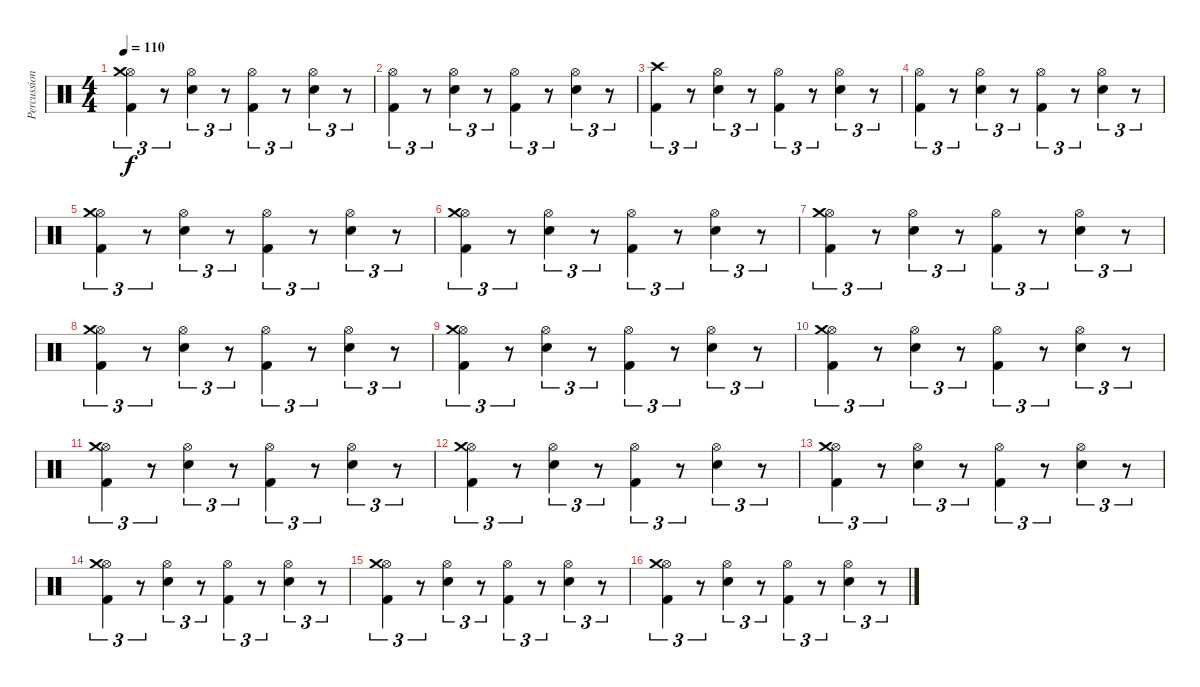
\track ("Percussion" "Percussion") {instrument percussion}
\staff {score}
\articulation defaults
\ts (4 4)
\tempo 110
\clef neutral
\ks c
("Kick (hit) 2" "Hi-Hat (open)" "Crash medium (hit)").4{tu (3 2) dy f} r.8{tu (3 2)} ("Electric Snare (hit)" "Hi-Hat (open)").4{tu (3 2)} r.8{tu (3 2)} ("Kick (hit) 2" "Hi-Hat (open)").4{tu (3 2)} r.8{tu (3 2)} ("Electric Snare (hit)" "Hi-Hat (open)").4{tu (3 2)} r.8{tu (3 2)} |
("Kick (hit) 2" "Hi-Hat (open)").4{tu (3 2)} r.8{tu (3 2)} ("Electric Snare (hit)" "Hi-Hat (open)").4{tu (3 2)} r.8{tu (3 2)} ("Kick (hit) 2" "Hi-Hat (open)").4{tu (3 2)} r.8{tu (3 2)} ("Electric Snare (hit)" "Hi-Hat (open)").4{tu (3 2)} r.8{tu (3 2)} |
("Kick (hit) 2" "Crash high (hit)").4{tu (3 2)} r.8{tu (3 2)} ("Electric Snare (hit)" "Hi-Hat (open)").4{tu (3 2)} r.8{tu (3 2)} ("Kick (hit) 2" "Hi-Hat (open)").4{tu (3 2)} r.8{tu (3 2)} ("Electric Snare (hit)" "Hi-Hat (open)").4{tu (3 2)} r.8{tu (3 2)} |
("Kick (hit) 2" "Hi-Hat (open)").4{tu (3 2)} r.8{tu (3 2)} ("Electric Snare (hit)" "Hi-Hat (open)").4{tu (3 2)} r.8{tu (3 2)} ("Kick (hit) 2" "Hi-Hat (open)").4{tu (3 2)} r.8{tu (3 2)} ("Electric Snare (hit)" "Hi-Hat (open)").4{tu (3 2)} r.8{tu (3 2)} |
("Kick (hit) 2" "Hi-Hat (open)" "Crash medium (hit)").4{tu (3 2)} r.8{tu (3 2)} ("Electric Snare (hit)" "Hi-Hat (open)").4{tu (3 2)} r.8{tu (3 2)} ("Kick (hit) 2" "Hi-Hat (open)").4{tu (3 2)} r.8{tu (3 2)} ("Electric Snare (hit)" "Hi-Hat (open)").4{tu (3 2)} r.8{tu (3 2)} |
("Kick (hit) 2" "Hi-Hat (open)" "Crash medium (hit)").4{tu (3 2)} r.8{tu (3 2)} ("Electric Snare (hit)" "Hi-Hat (open)").4{tu (3 2)} r.8{tu (3 2)} ("Kick (hit) 2" "Hi-Hat (open)").4{tu (3 2)} r.8{tu (3 2)} ("Electric Snare (hit)" "Hi-Hat (open)").4{tu (3 2)} r.8{tu (3 2)} |
("Kick (hit) 2" "Hi-Hat (open)" "Crash medium (hit)").4{tu (3 2)} r.8{tu (3 2)} ("Electric Snare (hit)" "Hi-Hat (open)").4{tu (3 2)} r.8{tu (3 2)} ("Kick (hit) 2" "Hi-Hat (open)").4{tu (3 2)} r.8{tu (3 2)} ("Electric Snare (hit)" "Hi-Hat (open)").4{tu (3 2)} r.8{tu (3 2)} |
("Kick (hit) 2" "Hi-Hat (open)" "Crash medium (hit)").4{tu (3 2)} r.8{tu (3 2)} ("Electric Snare (hit)" "Hi-Hat (open)").4{tu (3 2)} r.8{tu (3 2)} ("Kick (hit) 2" "Hi-Hat (open)").4{tu (3 2)} r.8{tu (3 2)} ("Electric Snare (hit)" "Hi-Hat (open)").4{tu (3 2)} r.8{tu (3 2)} |
("Kick (hit) 2" "Hi-Hat (open)" "Crash medium (hit)").4{tu (3 2)} r.8{tu (3 2)} ("Electric Snare (hit)" "Hi-Hat (open)").4{tu (3 2)} r.8{tu (3 2)} ("Kick (hit) 2" "Hi-Hat (open)").4{tu (3 2)} r.8{tu (3 2)} ("Electric Snare (hit)" "Hi-Hat (open)").4{tu (3 2)} r.8{tu (3 2)} |
("Kick (hit) 2" "Hi-Hat (open)" "Crash medium (hit)").4{tu (3 2)} r.8{tu (3 2)} ("Electric Snare (hit)" "Hi-Hat (open)").4{tu (3 2)} r.8{tu (3 2)} ("Kick (hit) 2" "Hi-Hat (open)").4{tu (3 2)} r.8{tu (3 2)} ("Electric Snare (hit)" "Hi-Hat (open)").4{tu (3 2)} r.8{tu (3 2)} |
("Kick (hit) 2" "Hi-Hat (open)" "Crash medium (hit)").4{tu (3 2)} r.8{tu (3 2)} ("Electric Snare (hit)" "Hi-Hat (open)").4{tu (3 2)} r.8{tu (3 2)} ("Kick (hit) 2" "Hi-Hat (open)").4{tu (3 2)} r.8{tu (3 2)} ("Electric Snare (hit)" "Hi-Hat (open)").4{tu (3 2)} r.8{tu (3 2)} |
("Kick (hit) 2" "Hi-Hat (open)" "Crash medium (hit)").4{tu (3 2)} r.8{tu (3 2)} ("Electric Snare (hit)" "Hi-Hat (open)").4{tu (3 2)} r.8{tu (3 2)} ("Kick (hit) 2" "Hi-Hat (open)").4{tu (3 2)} r.8{tu (3 2)} ("Electric Snare (hit)" "Hi-Hat (open)").4{tu (3 2)} r.8{tu (3 2)} |
("Kick (hit) 2" "Hi-Hat (open)" "Crash medium (hit)").4{tu (3 2)} r.8{tu (3 2)} ("Electric Snare (hit)" "Hi-Hat (open)").4{tu (3 2)} r.8{tu (3 2)} ("Kick (hit) 2" "Hi-Hat (open)").4{tu (3 2)} r.8{tu (3 2)} ("Electric Snare (hit)" "Hi-Hat (open)").4{tu (3 2)} r.8{tu (3 2)} |
("Kick (hit) 2" "Hi-Hat (open)" "Crash medium (hit)").4{tu (3 2)} r.8{tu (3 2)} ("Electric Snare (hit)" "Hi-Hat (open)").4{tu (3 2)} r.8{tu (3 2)} ("Kick (hit) 2" "Hi-Hat (open)").4{tu (3 2)} r.8{tu (3 2)} ("Electric Snare (hit)" "Hi-Hat (open)").4{tu (3 2)} r.8{tu (3 2)} |
("Kick (hit) 2" "Hi-Hat (open)" "Crash medium (hit)").4{tu (3 2)} r.8{tu (3 2)} ("Electric Snare (hit)" "Hi-Hat (open)").4{tu (3 2)} r.8{tu (3 2)} ("Kick (hit) 2" "Hi-Hat (open)").4{tu (3 2)} r.8{tu (3 2)} ("Electric Snare (hit)" "Hi-Hat (open)").4{tu (3 2)} r.8{tu (3 2)} |
("Kick (hit) 2" "Hi-Hat (open)" "Crash medium (hit)").4{tu (3 2)} r.8{tu (3 2)} ("Electric Snare (hit)" "Hi-Hat (open)").4{tu (3 2)} r.8{tu (3 2)} ("Kick (hit) 2" "Hi-Hat (open)").4{tu (3 2)} r.8{tu (3 2)} ("Electric Snare (hit)" "Hi-Hat (open)").4{tu (3 2)} r.8{tu (3 2)}
